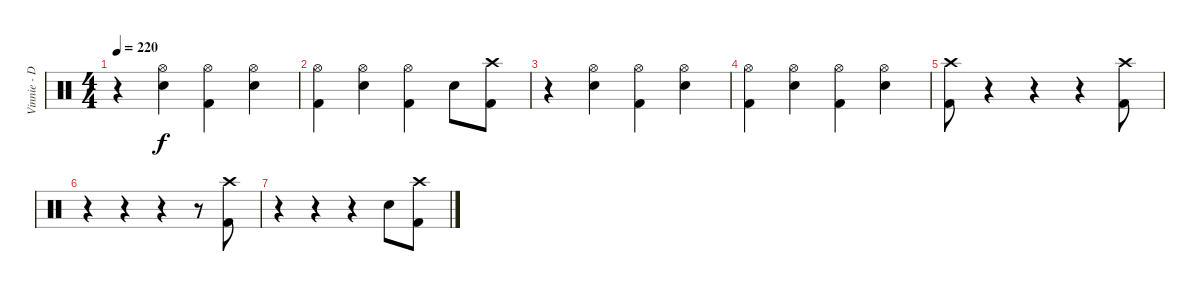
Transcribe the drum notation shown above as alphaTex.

\track ("Vinnie - Drums" "Vinnie - D") {instrument percussion}
\staff {score}
\articulation defaults
\ts (4 4)
\tempo 220
\clef neutral
\ks c
r.4{dy f} ("Hi-Hat (open)" "Electric Snare (hit)").4 ("Hi-Hat (open)" "Kick (hit) 2").4 ("Hi-Hat (open)" "Electric Snare (hit)").4 |
("Hi-Hat (open)" "Kick (hit) 2").4 ("Hi-Hat (open)" "Electric Snare (hit)").4 ("Hi-Hat (open)" "Kick (hit) 2").4 "Electric Snare (hit)".8 ("Crash high (hit)" "Kick (hit) 2").8 |
r.4 ("Hi-Hat (open)" "Electric Snare (hit)").4 ("Hi-Hat (open)" "Kick (hit) 2").4 ("Hi-Hat (open)" "Electric Snare (hit)").4 |
("Hi-Hat (open)" "Kick (hit) 2").4 ("Hi-Hat (open)" "Electric Snare (hit)").4 ("Hi-Hat (open)" "Kick (hit) 2").4 ("Hi-Hat (open)" "Electric Snare (hit)").4 |
("Crash high (hit)" "Kick (hit) 2").8 r.4 r.4 r.4 ("Crash high (hit)" "Kick (hit) 2").8 |
r.4 r.4 r.4 r.8 ("Crash high (hit)" "Kick (hit) 2").8 |
r.4 r.4 r.4 "Electric Snare (hit)".8 ("Crash high (hit)" "Kick (hit) 2").8
